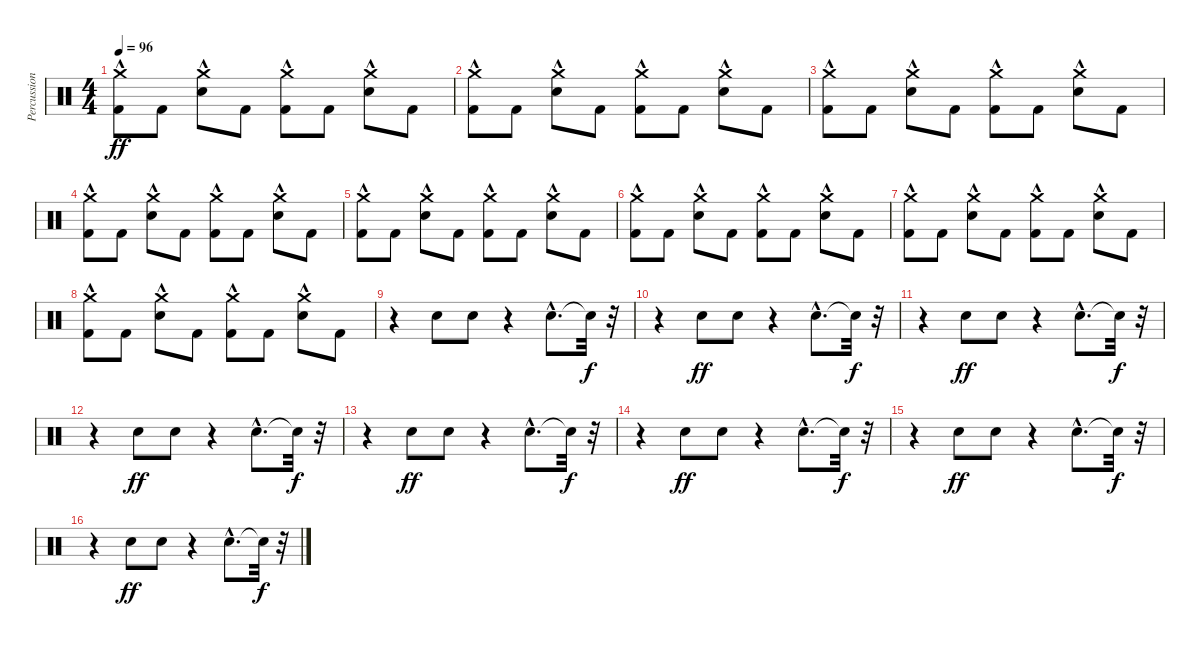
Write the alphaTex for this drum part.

\track ("Percussion 1" "Percussion") {instrument percussion}
\staff {score}
\articulation defaults
\ts (4 4)
\tempo 96
\clef neutral
\ks c
("Kick (hit) 2" "Crash medium (hit)"{hac}).8{dy ff} "Kick (hit) 2".8 ("Electric Snare (hit)" "Crash medium (hit)"{hac}).8 "Kick (hit) 2".8 ("Kick (hit) 2" "Crash medium (hit)"{hac}).8 "Kick (hit) 2".8 ("Electric Snare (hit)" "Crash medium (hit)"{hac}).8 "Kick (hit) 2".8 |
("Kick (hit) 2" "Crash medium (hit)"{hac}).8 "Kick (hit) 2".8 ("Electric Snare (hit)" "Crash medium (hit)"{hac}).8 "Kick (hit) 2".8 ("Kick (hit) 2" "Crash medium (hit)"{hac}).8 "Kick (hit) 2".8 ("Electric Snare (hit)" "Crash medium (hit)"{hac}).8 "Kick (hit) 2".8 |
("Kick (hit) 2" "Crash medium (hit)"{hac}).8 "Kick (hit) 2".8 ("Electric Snare (hit)" "Crash medium (hit)"{hac}).8 "Kick (hit) 2".8 ("Kick (hit) 2" "Crash medium (hit)"{hac}).8 "Kick (hit) 2".8 ("Electric Snare (hit)" "Crash medium (hit)"{hac}).8 "Kick (hit) 2".8 |
("Kick (hit) 2" "Crash medium (hit)"{hac}).8 "Kick (hit) 2".8 ("Electric Snare (hit)" "Crash medium (hit)"{hac}).8 "Kick (hit) 2".8 ("Kick (hit) 2" "Crash medium (hit)"{hac}).8 "Kick (hit) 2".8 ("Electric Snare (hit)" "Crash medium (hit)"{hac}).8 "Kick (hit) 2".8 |
("Kick (hit) 2" "Crash medium (hit)"{hac}).8 "Kick (hit) 2".8 ("Electric Snare (hit)" "Crash medium (hit)"{hac}).8 "Kick (hit) 2".8 ("Kick (hit) 2" "Crash medium (hit)"{hac}).8 "Kick (hit) 2".8 ("Electric Snare (hit)" "Crash medium (hit)"{hac}).8 "Kick (hit) 2".8 |
("Kick (hit) 2" "Crash medium (hit)"{hac}).8 "Kick (hit) 2".8 ("Electric Snare (hit)" "Crash medium (hit)"{hac}).8 "Kick (hit) 2".8 ("Kick (hit) 2" "Crash medium (hit)"{hac}).8 "Kick (hit) 2".8 ("Electric Snare (hit)" "Crash medium (hit)"{hac}).8 "Kick (hit) 2".8 |
("Kick (hit) 2" "Crash medium (hit)"{hac}).8 "Kick (hit) 2".8 ("Electric Snare (hit)" "Crash medium (hit)"{hac}).8 "Kick (hit) 2".8 ("Kick (hit) 2" "Crash medium (hit)"{hac}).8 "Kick (hit) 2".8 ("Electric Snare (hit)" "Crash medium (hit)"{hac}).8 "Kick (hit) 2".8 |
("Kick (hit) 2" "Crash medium (hit)"{hac}).8 "Kick (hit) 2".8 ("Electric Snare (hit)" "Crash medium (hit)"{hac}).8 "Kick (hit) 2".8 ("Kick (hit) 2" "Crash medium (hit)"{hac}).8 "Kick (hit) 2".8 ("Electric Snare (hit)" "Crash medium (hit)"{hac}).8 "Kick (hit) 2".8 |
r.4 "Electric Snare (hit)".8 "Electric Snare (hit)".8 r.4 "Electric Snare (hit)"{hac}.8{d} "Snare (hit)"{t}.32{dy f} r.32 |
r.4 "Electric Snare (hit)".8{dy ff} "Electric Snare (hit)".8 r.4 "Electric Snare (hit)"{hac}.8{d} "Snare (hit)"{t}.32{dy f} r.32 |
r.4 "Electric Snare (hit)".8{dy ff} "Electric Snare (hit)".8 r.4 "Electric Snare (hit)"{hac}.8{d} "Snare (hit)"{t}.32{dy f} r.32 |
r.4 "Electric Snare (hit)".8{dy ff} "Electric Snare (hit)".8 r.4 "Electric Snare (hit)"{hac}.8{d} "Snare (hit)"{t}.32{dy f} r.32 |
r.4 "Electric Snare (hit)".8{dy ff} "Electric Snare (hit)".8 r.4 "Electric Snare (hit)"{hac}.8{d} "Snare (hit)"{t}.32{dy f} r.32 |
r.4 "Electric Snare (hit)".8{dy ff} "Electric Snare (hit)".8 r.4 "Electric Snare (hit)"{hac}.8{d} "Snare (hit)"{t}.32{dy f} r.32 |
r.4 "Electric Snare (hit)".8{dy ff} "Electric Snare (hit)".8 r.4 "Electric Snare (hit)"{hac}.8{d} "Snare (hit)"{t}.32{dy f} r.32 |
r.4 "Electric Snare (hit)".8{dy ff} "Electric Snare (hit)".8 r.4 "Electric Snare (hit)"{hac}.8{d} "Snare (hit)"{t}.32{dy f} r.32
